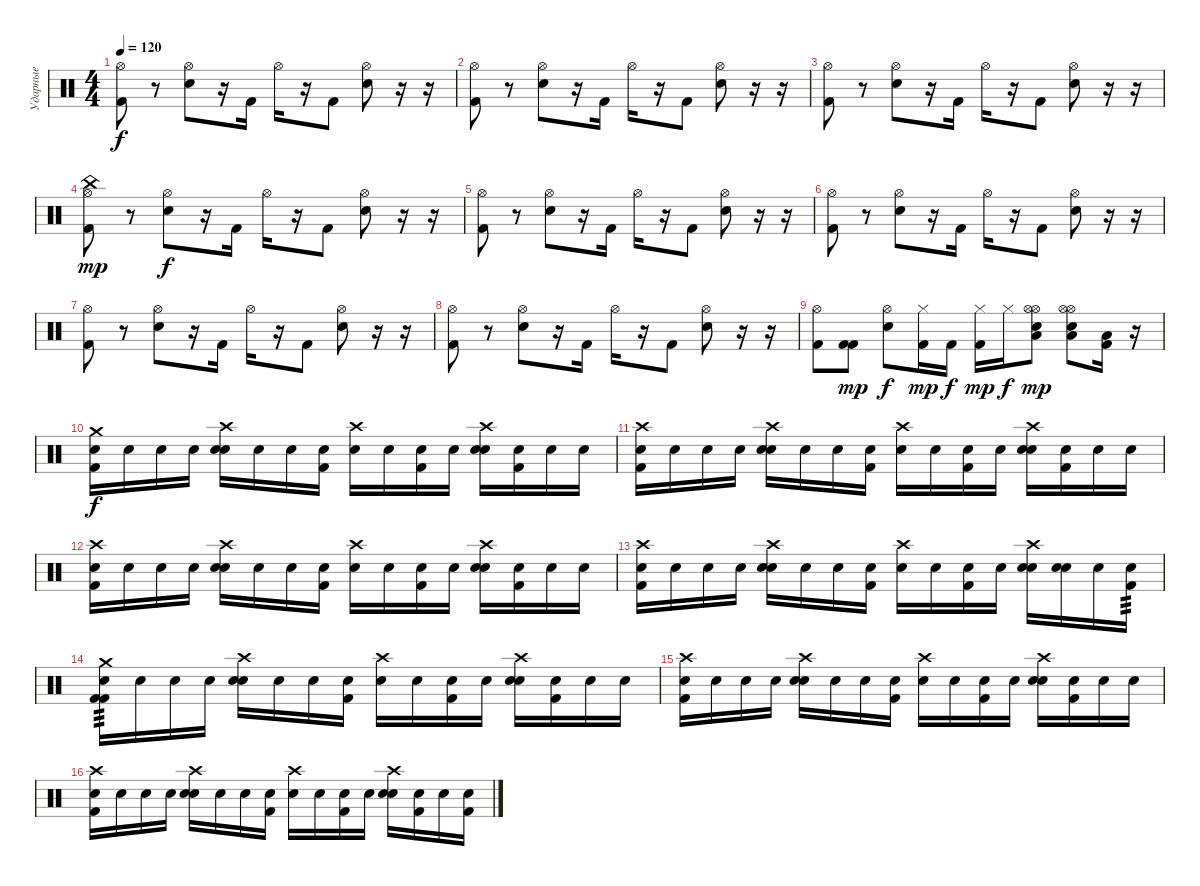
\track ("Ударные" "Ударные") {instrument percussion}
\staff {score}
\articulation defaults
\ts (4 4)
\tempo 120
\clef neutral
\ks c
("Hi-Hat (open)" "Kick (hit) 2").8{dy f} r.8 ("Hi-Hat (open)" "Snare (hit) 2").8 r.16 "Kick (hit) 2".16 "Hi-Hat (open)".16 r.16 "Kick (hit) 2".8 ("Hi-Hat (open)" "Snare (hit) 2").8 r.16 r.16 |
("Hi-Hat (open)" "Kick (hit) 2").8 r.8 ("Hi-Hat (open)" "Snare (hit) 2").8 r.16 "Kick (hit) 2".16 "Hi-Hat (open)".16 r.16 "Kick (hit) 2".8 ("Hi-Hat (open)" "Snare (hit) 2").8 r.16 r.16 |
("Hi-Hat (open)" "Kick (hit) 2").8 r.8 ("Hi-Hat (open)" "Snare (hit) 2").8 r.16 "Kick (hit) 2".16 "Hi-Hat (open)".16 r.16 "Kick (hit) 2".8 ("Hi-Hat (open)" "Snare (hit) 2").8 r.16 r.16 |
("China (hit)" "Hi-Hat (open)" "Kick (hit) 2").8{dy mp} r.8 ("Hi-Hat (open)" "Snare (hit) 2").8{dy f} r.16 "Kick (hit) 2".16 "Hi-Hat (open)".16 r.16 "Kick (hit) 2".8 ("Hi-Hat (open)" "Snare (hit) 2").8 r.16 r.16 |
("Hi-Hat (open)" "Kick (hit) 2").8 r.8 ("Hi-Hat (open)" "Snare (hit) 2").8 r.16 "Kick (hit) 2".16 "Hi-Hat (open)".16 r.16 "Kick (hit) 2".8 ("Hi-Hat (open)" "Snare (hit) 2").8 r.16 r.16 |
("Hi-Hat (open)" "Kick (hit) 2").8 r.8 ("Hi-Hat (open)" "Snare (hit) 2").8 r.16 "Kick (hit) 2".16 "Hi-Hat (open)".16 r.16 "Kick (hit) 2".8 ("Hi-Hat (open)" "Snare (hit) 2").8 r.16 r.16 |
("Hi-Hat (open)" "Kick (hit) 2").8 r.8 ("Hi-Hat (open)" "Snare (hit) 2").8 r.16 "Kick (hit) 2".16 "Hi-Hat (open)".16 r.16 "Kick (hit) 2".8 ("Hi-Hat (open)" "Snare (hit) 2").8 r.16 r.16 |
("Hi-Hat (open)" "Kick (hit) 2").8 r.8 ("Hi-Hat (open)" "Snare (hit) 2").8 r.16 "Kick (hit) 2".16 "Hi-Hat (open)".16 r.16 "Kick (hit) 2".8 ("Hi-Hat (open)" "Snare (hit) 2").8 r.16 r.16 |
("Hi-Hat (open)" "Kick (hit) 2").8 ("Kick (hit) 2" "Kick (hit) 2").8{dy mp} ("Hi-Hat (open)" "Snare (hit) 2").8{dy f} ("Hi-Hat (closed)" "Kick (hit) 2").16{dy mp} "Kick (hit) 2".16{dy f} ("Hi-Hat (closed)" "Kick (hit) 2").16{dy mp} "Hi-Hat (closed)".16{dy f} ("Hi-Hat (open)" "Hi-Hat (open)" "Low Floor Tom (hit)" "Snare (hit) 2").8{dy mp} ("Hi-Hat (open)" "Hi-Hat (open)" "Low Floor Tom (hit)" "Snare (hit) 2").8 ("Low Floor Tom (hit)" "Kick (hit) 2").16 r.16 |
("Crash medium (hit)" "Kick (hit) 2" "Snare (hit)").16{dy f} "Snare (hit)".16 "Snare (hit)".16 "Snare (hit)".16 ("Crash high (hit)" "Snare (hit) 2" "Snare (hit)").16 "Snare (hit)".16 "Snare (hit)".16 ("Kick (hit) 2" "Snare (hit)").16 ("Crash high (hit)" "Snare (hit)").16 "Snare (hit)".16 ("Kick (hit) 2" "Snare (hit)").16 "Snare (hit)".16 ("Crash high (hit)" "Snare (hit) 2" "Snare (hit)").16 ("Kick (hit) 2" "Snare (hit)").16 "Snare (hit)".16 "Snare (hit)".16 |
("Crash high (hit)" "Kick (hit) 2" "Snare (hit)").16 "Snare (hit)".16 "Snare (hit)".16 "Snare (hit)".16 ("Crash high (hit)" "Snare (hit) 2" "Snare (hit)").16 "Snare (hit)".16 "Snare (hit)".16 ("Kick (hit) 2" "Snare (hit)").16 ("Crash high (hit)" "Snare (hit)").16 "Snare (hit)".16 ("Kick (hit) 2" "Snare (hit)").16 "Snare (hit)".16 ("Crash high (hit)" "Snare (hit) 2" "Snare (hit)").16 ("Kick (hit) 2" "Snare (hit)").16 "Snare (hit)".16 "Snare (hit)".16 |
("Crash high (hit)" "Kick (hit) 2" "Snare (hit)").16 "Snare (hit)".16 "Snare (hit)".16 "Snare (hit)".16 ("Crash high (hit)" "Snare (hit) 2" "Snare (hit)").16 "Snare (hit)".16 "Snare (hit)".16 ("Kick (hit) 2" "Snare (hit)").16 ("Crash high (hit)" "Snare (hit)").16 "Snare (hit)".16 ("Kick (hit) 2" "Snare (hit)").16 "Snare (hit)".16 ("Crash high (hit)" "Snare (hit) 2" "Snare (hit)").16 ("Kick (hit) 2" "Snare (hit)").16 "Snare (hit)".16 "Snare (hit)".16 |
("Crash high (hit)" "Kick (hit) 2" "Snare (hit)").16 "Snare (hit)".16 "Snare (hit)".16 "Snare (hit)".16 ("Crash high (hit)" "Snare (hit) 2" "Snare (hit)").16 "Snare (hit)".16 "Snare (hit)".16 ("Kick (hit) 2" "Snare (hit)").16 ("Crash high (hit)" "Snare (hit)").16 "Snare (hit)".16 ("Kick (hit) 2" "Snare (hit)").16 "Snare (hit)".16 ("Crash high (hit)" "Snare (hit) 2" "Snare (hit)").16 ("Snare (hit) 2" "Snare (hit)").16 "Snare (hit)".16 ("Kick (hit) 2" "Snare (hit)").16{tp 3} |
("Crash medium (hit)" "Kick (hit) 2" "Kick (hit) 2" "Snare (hit)").16{tp 3} "Snare (hit)".16 "Snare (hit)".16 "Snare (hit)".16 ("Crash high (hit)" "Snare (hit) 2" "Snare (hit)").16 "Snare (hit)".16 "Snare (hit)".16 ("Kick (hit) 2" "Snare (hit)").16 ("Crash high (hit)" "Snare (hit)").16 "Snare (hit)".16 ("Kick (hit) 2" "Snare (hit)").16 "Snare (hit)".16 ("Crash high (hit)" "Snare (hit) 2" "Snare (hit)").16 ("Kick (hit) 2" "Snare (hit)").16 "Snare (hit)".16 "Snare (hit)".16 |
("Crash high (hit)" "Kick (hit) 2" "Snare (hit)").16 "Snare (hit)".16 "Snare (hit)".16 "Snare (hit)".16 ("Crash high (hit)" "Snare (hit) 2" "Snare (hit)").16 "Snare (hit)".16 "Snare (hit)".16 ("Kick (hit) 2" "Snare (hit)").16 ("Crash high (hit)" "Snare (hit)").16 "Snare (hit)".16 ("Kick (hit) 2" "Snare (hit)").16 "Snare (hit)".16 ("Crash high (hit)" "Snare (hit) 2" "Snare (hit)").16 ("Kick (hit) 2" "Snare (hit)").16 "Snare (hit)".16 "Snare (hit)".16 |
("Crash high (hit)" "Kick (hit) 2" "Snare (hit)").16 "Snare (hit)".16 "Snare (hit)".16 "Snare (hit)".16 ("Crash high (hit)" "Snare (hit) 2" "Snare (hit)").16 "Snare (hit)".16 "Snare (hit)".16 ("Kick (hit) 2" "Snare (hit)").16 ("Crash high (hit)" "Snare (hit)").16 "Snare (hit)".16 ("Kick (hit) 2" "Snare (hit)").16 "Snare (hit)".16 ("Crash high (hit)" "Snare (hit) 2" "Snare (hit)").16 ("Kick (hit) 2" "Snare (hit)").16 "Snare (hit)".16 ("Kick (hit) 2" "Snare (hit)").16
